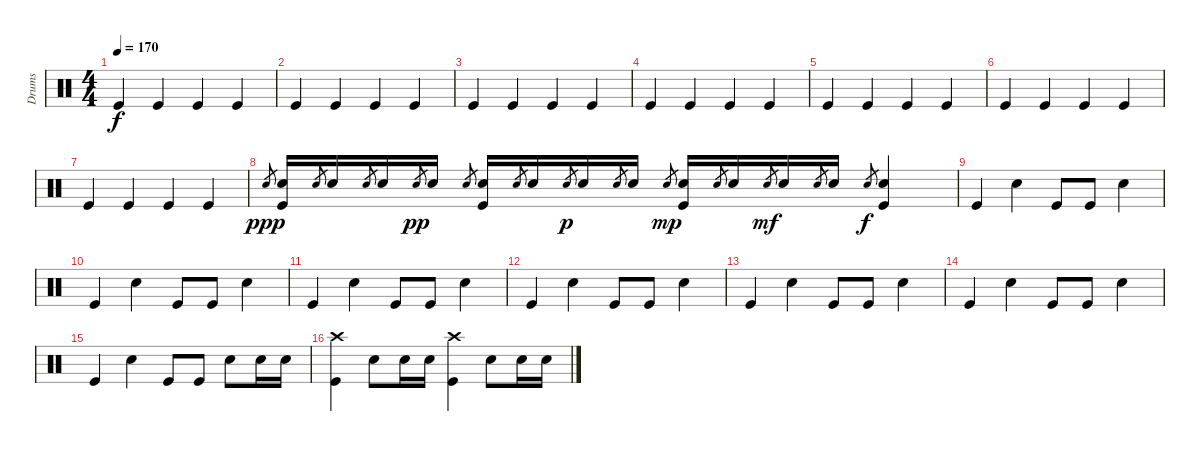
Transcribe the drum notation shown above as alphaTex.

\track ("Drums" "Drums") {instrument percussion}
\staff {score}
\articulation defaults
\ts (4 4)
\tempo 170
\clef neutral
\ks c "Kick (hit)".4{dy f} "Kick (hit)".4 "Kick (hit)".4 "Kick (hit)".4
|
"Kick (hit)".4 "Kick (hit)".4 "Kick (hit)".4 "Kick (hit)".4 |
"Kick (hit)".4 "Kick (hit)".4 "Kick (hit)".4 "Kick (hit)".4 |
"Kick (hit)".4 "Kick (hit)".4 "Kick (hit)".4 "Kick (hit)".4 |
"Kick (hit)".4 "Kick (hit)".4 "Kick (hit)".4 "Kick (hit)".4 |
"Kick (hit)".4 "Kick (hit)".4 "Kick (hit)".4 "Kick (hit)".4 |
"Kick (hit)".4 "Kick (hit)".4 "Kick (hit)".4 "Kick (hit)".4 |
"Snare (hit) 2".8{gr dy ppp} ("Snare (hit) 2" "Kick (hit)").16 "Snare (hit) 2".8{gr} "Snare (hit) 2".16 "Snare (hit) 2".8{gr} "Snare (hit) 2".16 "Snare (hit) 2".8{gr dy pp} "Snare (hit) 2".16 "Snare (hit) 2".8{gr} ("Snare (hit) 2" "Kick (hit)").16 "Snare (hit) 2".8{gr} "Snare (hit) 2".16 "Snare (hit) 2".8{gr dy p} "Snare (hit) 2".16 "Snare (hit) 2".8{gr} "Snare (hit) 2".16 "Snare (hit) 2".8{gr dy mp} ("Snare (hit) 2" "Kick (hit)").16 "Snare (hit) 2".8{gr} "Snare (hit) 2".16 "Snare (hit) 2".8{gr dy mf} "Snare (hit) 2".16 "Snare (hit) 2".8{gr} "Snare (hit) 2".16 "Snare (hit) 2".8{gr dy f} ("Snare (hit) 2" "Kick (hit)").4 |
"Kick (hit)".4 "Snare (hit) 2".4 "Kick (hit)".8 "Kick (hit)".8 "Snare (hit) 2".4 |
"Kick (hit)".4 "Snare (hit) 2".4 "Kick (hit)".8 "Kick (hit)".8 "Snare (hit) 2".4 |
"Kick (hit)".4 "Snare (hit) 2".4 "Kick (hit)".8 "Kick (hit)".8 "Snare (hit) 2".4 |
"Kick (hit)".4 "Snare (hit) 2".4 "Kick (hit)".8 "Kick (hit)".8 "Snare (hit) 2".4 |
"Kick (hit)".4 "Snare (hit) 2".4 "Kick (hit)".8 "Kick (hit)".8 "Snare (hit) 2".4 |
"Kick (hit)".4 "Snare (hit) 2".4 "Kick (hit)".8 "Kick (hit)".8 "Snare (hit) 2".4 |
"Kick (hit)".4 "Snare (hit) 2".4 "Kick (hit)".8 "Kick (hit)".8 "Snare (hit) 2".8 "Snare (hit) 2".16 "Snare (hit) 2".16 |
("Crash high (hit)" "Kick (hit)").4 "Snare (hit) 2".8 "Snare (hit) 2".16 "Snare (hit) 2".16 ("Crash high (hit)" "Kick (hit)").4 "Snare (hit) 2".8 "Snare (hit) 2".16 "Snare (hit) 2".16
